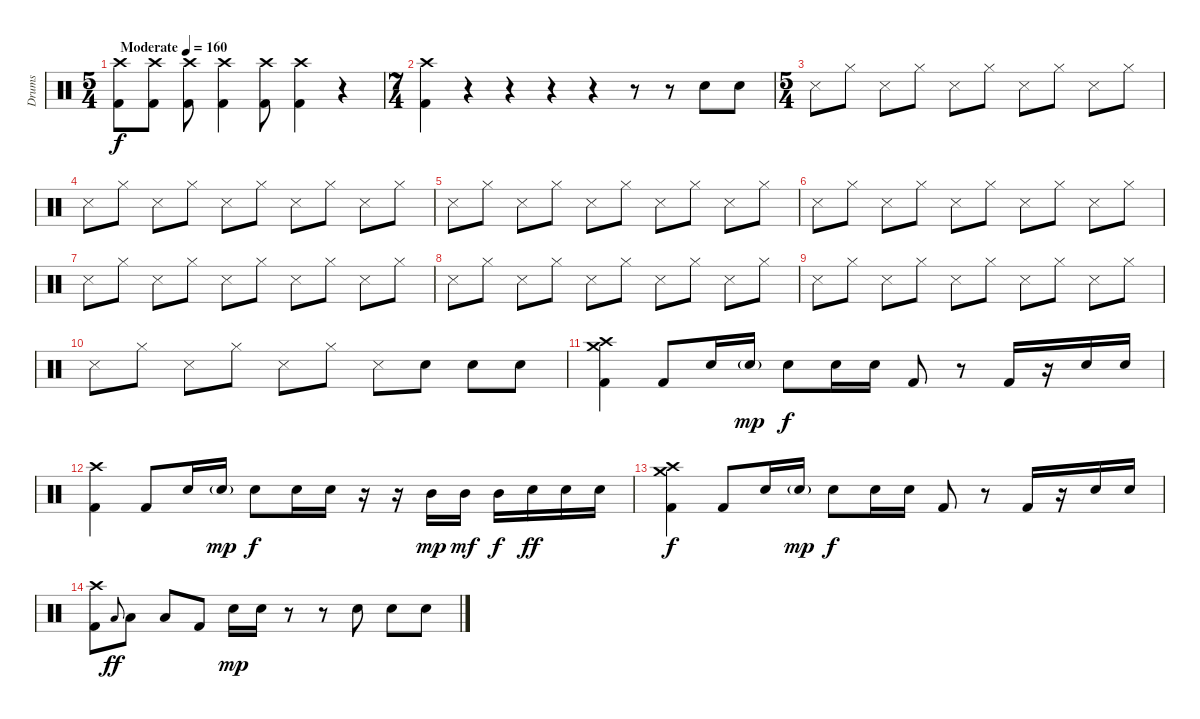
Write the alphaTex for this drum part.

\track ("Drums" "Drums") {instrument percussion}
\staff {score}
\articulation defaults
\ts (5 4)
\tempo (160 "Moderate")
\clef neutral
\ks c
("Crash high (hit)" "Kick (hit) 2").8{dy f} ("Crash high (hit)" "Kick (hit) 2").8 ("Crash high (hit)" "Kick (hit) 2").8 ("Crash high (hit)" "Kick (hit) 2").4 ("Crash high (hit)" "Kick (hit) 2").8 ("Crash high (hit)" "Kick (hit) 2").4 r.4 |
\ts (7 4)
("Crash high (hit)" "Kick (hit) 2").4 r.4 r.4 r.4 r.4 r.8 r.8 "Snare (hit) 2".8 "Snare (hit) 2".8 |
\ts (5 4)
"Snare (side stick) 3".8 "Hi-Hat (closed)".8 "Snare (side stick) 3".8 "Hi-Hat (closed)".8 "Snare (side stick) 3".8 "Hi-Hat (closed)".8 "Snare (side stick) 3".8 "Hi-Hat (closed)".8 "Snare (side stick) 3".8 "Hi-Hat (closed)".8 |
"Snare (side stick) 3".8 "Hi-Hat (closed)".8 "Snare (side stick) 3".8 "Hi-Hat (closed)".8 "Snare (side stick) 3".8 "Hi-Hat (closed)".8 "Snare (side stick) 3".8 "Hi-Hat (closed)".8 "Snare (side stick) 3".8 "Hi-Hat (closed)".8 |
"Snare (side stick) 3".8 "Hi-Hat (closed)".8 "Snare (side stick) 3".8 "Hi-Hat (closed)".8 "Snare (side stick) 3".8 "Hi-Hat (closed)".8 "Snare (side stick) 3".8 "Hi-Hat (closed)".8 "Snare (side stick) 3".8 "Hi-Hat (closed)".8 |
"Snare (side stick) 3".8 "Hi-Hat (closed)".8 "Snare (side stick) 3".8 "Hi-Hat (closed)".8 "Snare (side stick) 3".8 "Hi-Hat (closed)".8 "Snare (side stick) 3".8 "Hi-Hat (closed)".8 "Snare (side stick) 3".8 "Hi-Hat (closed)".8 |
"Snare (side stick) 3".8 "Hi-Hat (closed)".8 "Snare (side stick) 3".8 "Hi-Hat (closed)".8 "Snare (side stick) 3".8 "Hi-Hat (closed)".8 "Snare (side stick) 3".8 "Hi-Hat (closed)".8 "Snare (side stick) 3".8 "Hi-Hat (closed)".8 |
"Snare (side stick) 3".8 "Hi-Hat (closed)".8 "Snare (side stick) 3".8 "Hi-Hat (closed)".8 "Snare (side stick) 3".8 "Hi-Hat (closed)".8 "Snare (side stick) 3".8 "Hi-Hat (closed)".8 "Snare (side stick) 3".8 "Hi-Hat (closed)".8 |
"Snare (side stick) 3".8 "Hi-Hat (closed)".8 "Snare (side stick) 3".8 "Hi-Hat (closed)".8 "Snare (side stick) 3".8 "Hi-Hat (closed)".8 "Snare (side stick) 3".8 "Hi-Hat (closed)".8 "Snare (side stick) 3".8 "Hi-Hat (closed)".8 |
"Snare (side stick) 3".8 "Hi-Hat (closed)".8 "Snare (side stick) 3".8 "Hi-Hat (closed)".8 "Snare (side stick) 3".8 "Hi-Hat (closed)".8 "Snare (side stick) 3".8 "Snare (hit) 2".8 "Snare (hit) 2".8 "Snare (hit) 2".8 |
("Crash high (hit)" "Crash medium (hit)" "Kick (hit) 2").4 "Kick (hit) 2".8 "Snare (hit) 2".16 "Snare (hit) 2"{g}.16{dy mp} "Snare (hit) 2".8{dy f} "Snare (hit) 2".16 "Snare (hit) 2".16 "Kick (hit) 2".8 r.8 "Kick (hit) 2".16 r.16 "Snare (hit) 2".16 "Snare (hit) 2".16 |
("Crash high (hit)" "Kick (hit) 2").4 "Kick (hit) 2".8 "Snare (hit) 2".16 "Snare (hit) 2"{g}.16{dy mp} "Snare (hit) 2".8{dy f} "Snare (hit) 2".16 "Snare (hit) 2".16 r.16 r.16 "Mid Tom (hit)".16{dy mp} "Mid Tom (hit)".16{dy mf} "Mid Tom (hit)".16{dy f} "Snare (hit) 2".16{dy ff} "Snare (hit) 2".16 "Snare (hit) 2".16 |
("Crash high (hit)" "Crash medium (hit)" "Kick (hit) 2").4{dy f} "Kick (hit) 2".8 "Snare (hit) 2".16 "Snare (hit) 2"{g}.16{dy mp} "Snare (hit) 2".8{dy f} "Snare (hit) 2".16 "Snare (hit) 2".16 "Kick (hit) 2".8 r.8 "Kick (hit) 2".16 r.16 "Snare (hit) 2".16 "Snare (hit) 2".16 |
("Crash high (hit)" "Kick (hit) 2").8 "Low Tom (hit)"{h}.8{gr onbeat dy ff} "Low Tom (hit)".8 "Low Tom (hit)".8 "Kick (hit) 2".8 "Snare (hit) 2".16{dy mp} "Snare (hit) 2".16 r.8 r.8 "Snare (hit) 2".8 "Snare (hit) 2".8 "Snare (hit) 2".8
